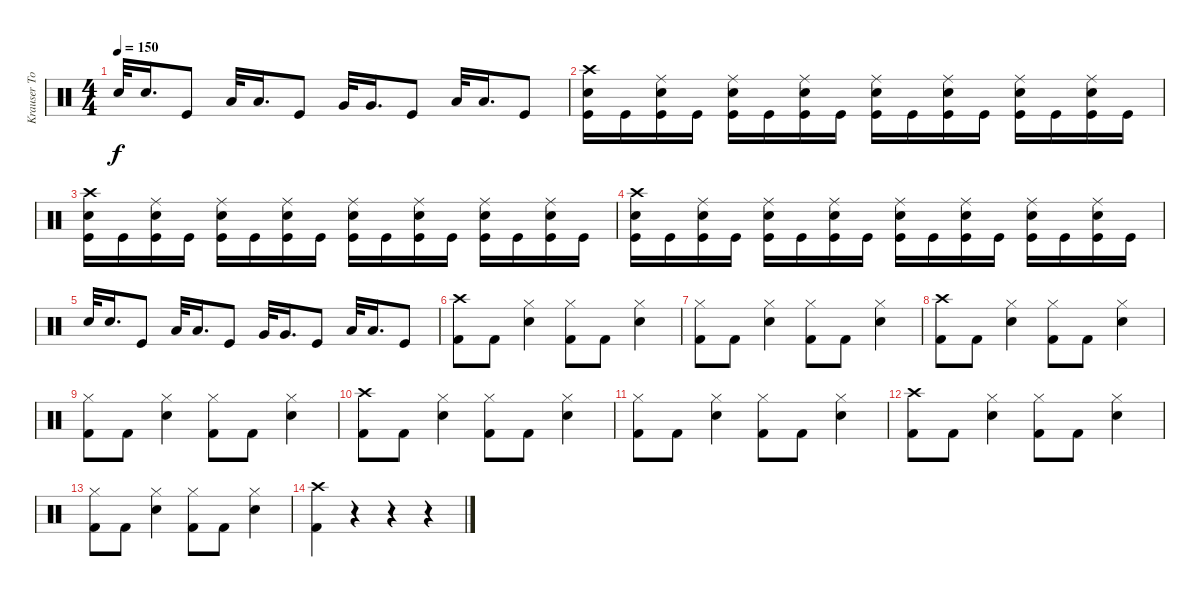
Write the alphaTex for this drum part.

\track ("Krauser Tolixon" "Krauser To") {instrument percussion}
\staff {score}
\articulation defaults
\ts (4 4)
\tempo 150
\clef neutral
\ks c "Electric Snare (hit)".32{dy f} "Electric Snare (hit)".16{d} "Kick (hit)".8 "Low Tom (hit)".32 "Low Tom (hit)".16{d} "Kick (hit)".8 "Very Low Tom (hit)".32 "Very Low Tom (hit)".16{d} "Kick (hit)".8 "Low Floor Tom (hit)".32 "Low Floor Tom (hit)".16{d} "Kick (hit)".8
|
("Crash high (hit)" "Electric Snare (hit)" "Kick (hit)").16 "Kick (hit)".16 ("Ride (middle)" "Electric Snare (hit)" "Kick (hit)").16 "Kick (hit)".16 ("Ride (middle)" "Electric Snare (hit)" "Kick (hit)").16 "Kick (hit)".16 ("Ride (middle)" "Electric Snare (hit)" "Kick (hit)").16 "Kick (hit)".16 ("Ride (middle)" "Electric Snare (hit)" "Kick (hit)").16 "Kick (hit)".16 ("Ride (middle)" "Electric Snare (hit)" "Kick (hit)").16 "Kick (hit)".16 ("Ride (middle)" "Electric Snare (hit)" "Kick (hit)").16 "Kick (hit)".16 ("Ride (middle)" "Electric Snare (hit)" "Kick (hit)").16 "Kick (hit)".16 |
("Crash high (hit)" "Electric Snare (hit)" "Kick (hit)").16 "Kick (hit)".16 ("Ride (middle)" "Electric Snare (hit)" "Kick (hit)").16 "Kick (hit)".16 ("Ride (middle)" "Electric Snare (hit)" "Kick (hit)").16 "Kick (hit)".16 ("Ride (middle)" "Electric Snare (hit)" "Kick (hit)").16 "Kick (hit)".16 ("Ride (middle)" "Electric Snare (hit)" "Kick (hit)").16 "Kick (hit)".16 ("Ride (middle)" "Electric Snare (hit)" "Kick (hit)").16 "Kick (hit)".16 ("Ride (middle)" "Electric Snare (hit)" "Kick (hit)").16 "Kick (hit)".16 ("Ride (middle)" "Electric Snare (hit)" "Kick (hit)").16 "Kick (hit)".16 |
("Crash high (hit)" "Electric Snare (hit)" "Kick (hit)").16 "Kick (hit)".16 ("Ride (middle)" "Electric Snare (hit)" "Kick (hit)").16 "Kick (hit)".16 ("Ride (middle)" "Electric Snare (hit)" "Kick (hit)").16 "Kick (hit)".16 ("Ride (middle)" "Electric Snare (hit)" "Kick (hit)").16 "Kick (hit)".16 ("Ride (middle)" "Electric Snare (hit)" "Kick (hit)").16 "Kick (hit)".16 ("Ride (middle)" "Electric Snare (hit)" "Kick (hit)").16 "Kick (hit)".16 ("Ride (middle)" "Electric Snare (hit)" "Kick (hit)").16 "Kick (hit)".16 ("Ride (middle)" "Electric Snare (hit)" "Kick (hit)").16 "Kick (hit)".16 |
"Electric Snare (hit)".32 "Electric Snare (hit)".16{d} "Kick (hit)".8 "Low Tom (hit)".32 "Low Tom (hit)".16{d} "Kick (hit)".8 "Very Low Tom (hit)".32 "Very Low Tom (hit)".16{d} "Kick (hit)".8 "Low Floor Tom (hit)".32 "Low Floor Tom (hit)".16{d} "Kick (hit)".8 |
("Kick (hit) 2" "Crash high (hit)").8 "Kick (hit) 2".8 ("Electric Snare (hit)" "Hi-Hat (closed)").4 ("Kick (hit) 2" "Hi-Hat (closed)").8 "Kick (hit) 2".8 ("Electric Snare (hit)" "Hi-Hat (closed)").4 |
("Kick (hit) 2" "Hi-Hat (closed)").8 "Kick (hit) 2".8 ("Electric Snare (hit)" "Hi-Hat (closed)").4 ("Kick (hit) 2" "Hi-Hat (closed)").8 "Kick (hit) 2".8 ("Electric Snare (hit)" "Hi-Hat (closed)").4 |
("Kick (hit) 2" "Crash high (hit)").8 "Kick (hit) 2".8 ("Electric Snare (hit)" "Hi-Hat (closed)").4 ("Kick (hit) 2" "Hi-Hat (closed)").8 "Kick (hit) 2".8 ("Electric Snare (hit)" "Hi-Hat (closed)").4 |
("Kick (hit) 2" "Hi-Hat (closed)").8 "Kick (hit) 2".8 ("Electric Snare (hit)" "Hi-Hat (closed)").4 ("Kick (hit) 2" "Hi-Hat (closed)").8 "Kick (hit) 2".8 ("Electric Snare (hit)" "Hi-Hat (closed)").4 |
("Kick (hit) 2" "Crash high (hit)").8 "Kick (hit) 2".8 ("Electric Snare (hit)" "Hi-Hat (closed)").4 ("Kick (hit) 2" "Hi-Hat (closed)").8 "Kick (hit) 2".8 ("Electric Snare (hit)" "Hi-Hat (closed)").4 |
("Kick (hit) 2" "Hi-Hat (closed)").8 "Kick (hit) 2".8 ("Electric Snare (hit)" "Hi-Hat (closed)").4 ("Kick (hit) 2" "Hi-Hat (closed)").8 "Kick (hit) 2".8 ("Electric Snare (hit)" "Hi-Hat (closed)").4 |
("Kick (hit) 2" "Crash high (hit)").8 "Kick (hit) 2".8 ("Electric Snare (hit)" "Hi-Hat (closed)").4 ("Kick (hit) 2" "Hi-Hat (closed)").8 "Kick (hit) 2".8 ("Electric Snare (hit)" "Hi-Hat (closed)").4 |
("Kick (hit) 2" "Hi-Hat (closed)").8 "Kick (hit) 2".8 ("Electric Snare (hit)" "Hi-Hat (closed)").4 ("Kick (hit) 2" "Hi-Hat (closed)").8 "Kick (hit) 2".8 ("Electric Snare (hit)" "Hi-Hat (closed)").4 |
("Kick (hit) 2" "Crash high (hit)").4 r.4 r.4 r.4
